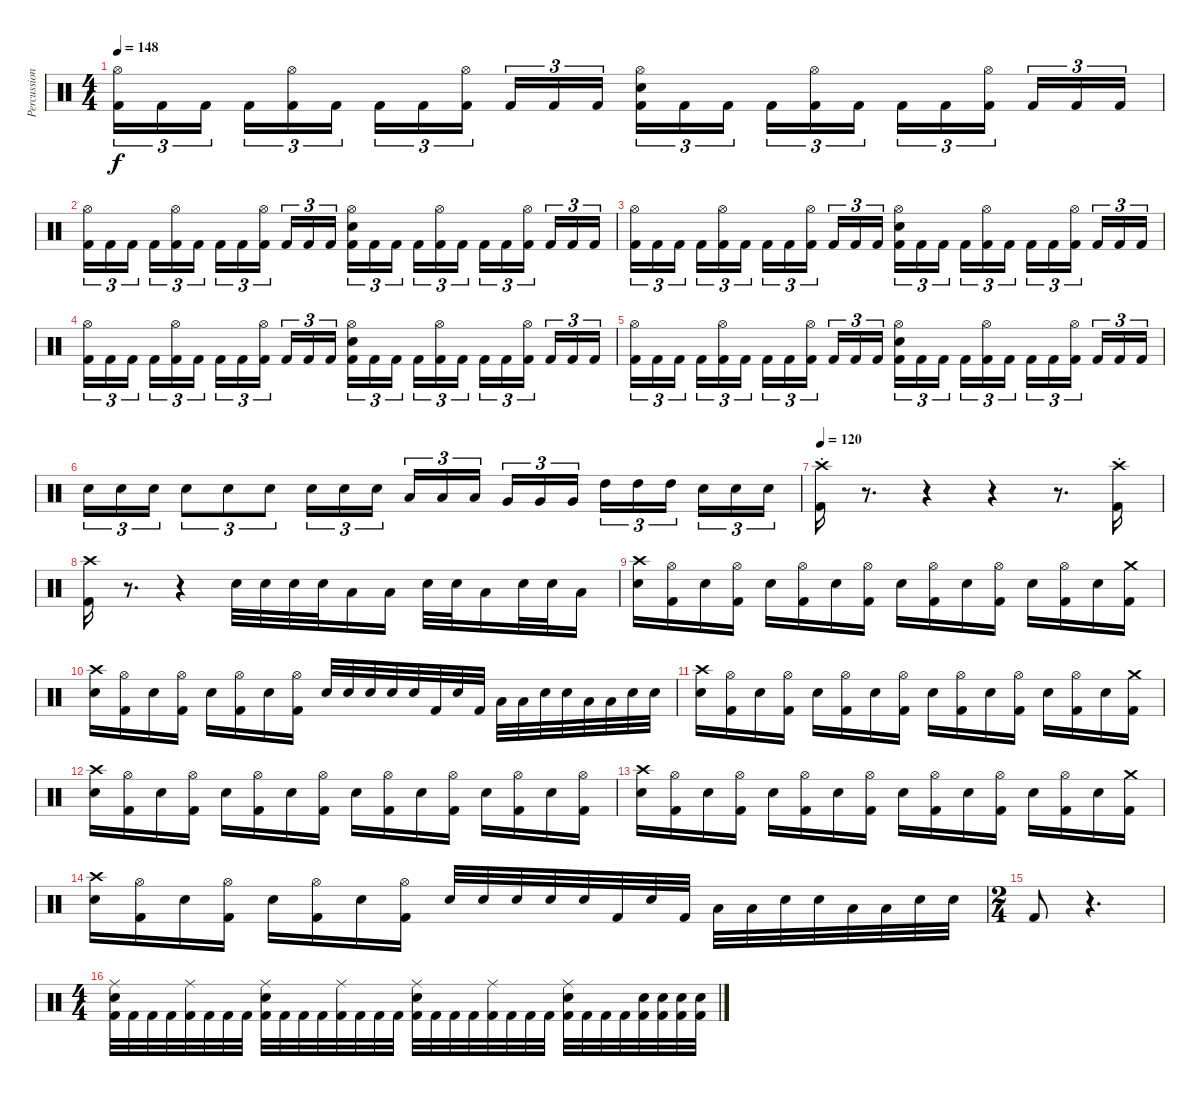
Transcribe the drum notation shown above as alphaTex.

\track ("Percussion" "Percussion") {instrument percussion}
\staff {score}
\articulation defaults
\ts (4 4)
\tempo 148
\clef neutral
\ks c
("Hi-Hat (open)" "Kick (hit) 2").16{tu (3 2) dy f} "Kick (hit) 2".16{tu (3 2)} "Kick (hit) 2".16{tu (3 2)} "Kick (hit) 2".16{tu (3 2)} ("Hi-Hat (open)" "Kick (hit) 2").16{tu (3 2)} "Kick (hit) 2".16{tu (3 2)} "Kick (hit) 2".16{tu (3 2)} "Kick (hit) 2".16{tu (3 2)} ("Hi-Hat (open)" "Kick (hit) 2").16{tu (3 2)} "Kick (hit) 2".16{tu (3 2)} "Kick (hit) 2".16{tu (3 2)} "Kick (hit) 2".16{tu (3 2)} ("Hi-Hat (open)" "Electric Snare (hit)" "Kick (hit) 2").16{tu (3 2)} "Kick (hit) 2".16{tu (3 2)} "Kick (hit) 2".16{tu (3 2)} "Kick (hit) 2".16{tu (3 2)} ("Hi-Hat (open)" "Kick (hit) 2").16{tu (3 2)} "Kick (hit) 2".16{tu (3 2)} "Kick (hit) 2".16{tu (3 2)} "Kick (hit) 2".16{tu (3 2)} ("Hi-Hat (open)" "Kick (hit) 2").16{tu (3 2)} "Kick (hit) 2".16{tu (3 2)} "Kick (hit) 2".16{tu (3 2)} "Kick (hit) 2".16{tu (3 2)} |
("Hi-Hat (open)" "Kick (hit) 2").16{tu (3 2)} "Kick (hit) 2".16{tu (3 2)} "Kick (hit) 2".16{tu (3 2)} "Kick (hit) 2".16{tu (3 2)} ("Hi-Hat (open)" "Kick (hit) 2").16{tu (3 2)} "Kick (hit) 2".16{tu (3 2)} "Kick (hit) 2".16{tu (3 2)} "Kick (hit) 2".16{tu (3 2)} ("Hi-Hat (open)" "Kick (hit) 2").16{tu (3 2)} "Kick (hit) 2".16{tu (3 2)} "Kick (hit) 2".16{tu (3 2)} "Kick (hit) 2".16{tu (3 2)} ("Hi-Hat (open)" "Electric Snare (hit)" "Kick (hit) 2").16{tu (3 2)} "Kick (hit) 2".16{tu (3 2)} "Kick (hit) 2".16{tu (3 2)} "Kick (hit) 2".16{tu (3 2)} ("Hi-Hat (open)" "Kick (hit) 2").16{tu (3 2)} "Kick (hit) 2".16{tu (3 2)} "Kick (hit) 2".16{tu (3 2)} "Kick (hit) 2".16{tu (3 2)} ("Hi-Hat (open)" "Kick (hit) 2").16{tu (3 2)} "Kick (hit) 2".16{tu (3 2)} "Kick (hit) 2".16{tu (3 2)} "Kick (hit) 2".16{tu (3 2)} |
("Hi-Hat (open)" "Kick (hit) 2").16{tu (3 2)} "Kick (hit) 2".16{tu (3 2)} "Kick (hit) 2".16{tu (3 2)} "Kick (hit) 2".16{tu (3 2)} ("Hi-Hat (open)" "Kick (hit) 2").16{tu (3 2)} "Kick (hit) 2".16{tu (3 2)} "Kick (hit) 2".16{tu (3 2)} "Kick (hit) 2".16{tu (3 2)} ("Hi-Hat (open)" "Kick (hit) 2").16{tu (3 2)} "Kick (hit) 2".16{tu (3 2)} "Kick (hit) 2".16{tu (3 2)} "Kick (hit) 2".16{tu (3 2)} ("Hi-Hat (open)" "Electric Snare (hit)" "Kick (hit) 2").16{tu (3 2)} "Kick (hit) 2".16{tu (3 2)} "Kick (hit) 2".16{tu (3 2)} "Kick (hit) 2".16{tu (3 2)} ("Hi-Hat (open)" "Kick (hit) 2").16{tu (3 2)} "Kick (hit) 2".16{tu (3 2)} "Kick (hit) 2".16{tu (3 2)} "Kick (hit) 2".16{tu (3 2)} ("Hi-Hat (open)" "Kick (hit) 2").16{tu (3 2)} "Kick (hit) 2".16{tu (3 2)} "Kick (hit) 2".16{tu (3 2)} "Kick (hit) 2".16{tu (3 2)} |
("Hi-Hat (open)" "Kick (hit) 2").16{tu (3 2)} "Kick (hit) 2".16{tu (3 2)} "Kick (hit) 2".16{tu (3 2)} "Kick (hit) 2".16{tu (3 2)} ("Hi-Hat (open)" "Kick (hit) 2").16{tu (3 2)} "Kick (hit) 2".16{tu (3 2)} "Kick (hit) 2".16{tu (3 2)} "Kick (hit) 2".16{tu (3 2)} ("Hi-Hat (open)" "Kick (hit) 2").16{tu (3 2)} "Kick (hit) 2".16{tu (3 2)} "Kick (hit) 2".16{tu (3 2)} "Kick (hit) 2".16{tu (3 2)} ("Hi-Hat (open)" "Electric Snare (hit)" "Kick (hit) 2").16{tu (3 2)} "Kick (hit) 2".16{tu (3 2)} "Kick (hit) 2".16{tu (3 2)} "Kick (hit) 2".16{tu (3 2)} ("Hi-Hat (open)" "Kick (hit) 2").16{tu (3 2)} "Kick (hit) 2".16{tu (3 2)} "Kick (hit) 2".16{tu (3 2)} "Kick (hit) 2".16{tu (3 2)} ("Hi-Hat (open)" "Kick (hit) 2").16{tu (3 2)} "Kick (hit) 2".16{tu (3 2)} "Kick (hit) 2".16{tu (3 2)} "Kick (hit) 2".16{tu (3 2)} |
("Hi-Hat (open)" "Kick (hit) 2").16{tu (3 2)} "Kick (hit) 2".16{tu (3 2)} "Kick (hit) 2".16{tu (3 2)} "Kick (hit) 2".16{tu (3 2)} ("Hi-Hat (open)" "Kick (hit) 2").16{tu (3 2)} "Kick (hit) 2".16{tu (3 2)} "Kick (hit) 2".16{tu (3 2)} "Kick (hit) 2".16{tu (3 2)} ("Hi-Hat (open)" "Kick (hit) 2").16{tu (3 2)} "Kick (hit) 2".16{tu (3 2)} "Kick (hit) 2".16{tu (3 2)} "Kick (hit) 2".16{tu (3 2)} ("Hi-Hat (open)" "Electric Snare (hit)" "Kick (hit) 2").16{tu (3 2)} "Kick (hit) 2".16{tu (3 2)} "Kick (hit) 2".16{tu (3 2)} "Kick (hit) 2".16{tu (3 2)} ("Hi-Hat (open)" "Kick (hit) 2").16{tu (3 2)} "Kick (hit) 2".16{tu (3 2)} "Kick (hit) 2".16{tu (3 2)} "Kick (hit) 2".16{tu (3 2)} ("Hi-Hat (open)" "Kick (hit) 2").16{tu (3 2)} "Kick (hit) 2".16{tu (3 2)} "Kick (hit) 2".16{tu (3 2)} "Kick (hit) 2".16{tu (3 2)} |
"Electric Snare (hit)".16{tu (3 2)} "Electric Snare (hit)".16{tu (3 2)} "Electric Snare (hit)".16{tu (3 2)} "Electric Snare (hit)".8{tu (3 2)} "Electric Snare (hit)".8{tu (3 2)} "Electric Snare (hit)".8{tu (3 2)} "Electric Snare (hit)".16{tu (3 2)} "Electric Snare (hit)".16{tu (3 2)} "Electric Snare (hit)".16{tu (3 2)} "Low Tom (hit)".16{tu (3 2)} "Low Tom (hit)".16{tu (3 2)} "Low Tom (hit)".16{tu (3 2)} "Very Low Tom (hit)".16{tu (3 2)} "Very Low Tom (hit)".16{tu (3 2)} "Very Low Tom (hit)".16{tu (3 2)} "High Tom (hit)".16{tu (3 2)} "High Tom (hit)".16{tu (3 2)} "High Tom (hit)".16{tu (3 2)} "Electric Snare (hit)".16{tu (3 2)} "Electric Snare (hit)".16{tu (3 2)} "Electric Snare (hit)".16{tu (3 2)} |
\tempo 120
("Crash high (hit)"{st} "Kick (hit) 2").16 r.8{d} r.4 r.4 r.8{d} ("Crash high (hit)"{st} "Kick (hit) 2").16 |
("Crash high (hit)" "Kick (hit) 2").16 r.8{d} r.4 "Electric Snare (hit)".32 "Electric Snare (hit)".32 "Electric Snare (hit)".32 "Electric Snare (hit)".32 "Low Tom (hit)".16 "Low Tom (hit)".16 "Electric Snare (hit)".32 "Electric Snare (hit)".32 "Low Tom (hit)".16 "Electric Snare (hit)".32 "Electric Snare (hit)".32 "Low Tom (hit)".16 |
("Crash high (hit)" "Electric Snare (hit)").16 ("Hi-Hat (open)" "Kick (hit) 2").16 "Electric Snare (hit)".16 ("Hi-Hat (open)" "Kick (hit) 2").16 "Electric Snare (hit)".16 ("Hi-Hat (open)" "Kick (hit) 2").16 "Electric Snare (hit)".16 ("Hi-Hat (open)" "Kick (hit) 2").16 "Electric Snare (hit)".16 ("Hi-Hat (open)" "Kick (hit) 2").16 "Electric Snare (hit)".16 ("Hi-Hat (open)" "Kick (hit) 2").16 "Electric Snare (hit)".16 ("Hi-Hat (open)" "Kick (hit) 2").16 "Electric Snare (hit)".16 ("Crash medium (hit)" "Kick (hit) 2").16 |
("Crash high (hit)" "Electric Snare (hit)").16 ("Hi-Hat (open)" "Kick (hit) 2").16 "Electric Snare (hit)".16 ("Hi-Hat (open)" "Kick (hit) 2").16 "Electric Snare (hit)".16 ("Hi-Hat (open)" "Kick (hit) 2").16 "Electric Snare (hit)".16 ("Hi-Hat (open)" "Kick (hit) 2").16 "Electric Snare (hit)".32 "Electric Snare (hit)".32 "Electric Snare (hit)".32 "Electric Snare (hit)".32 "Electric Snare (hit)".32 "Kick (hit) 2".32 "Electric Snare (hit)".32 "Kick (hit) 2".32 "Low Tom (hit)".32 "Low Tom (hit)".32 "Electric Snare (hit)".32 "Electric Snare (hit)".32 "Low Tom (hit)".32 "Low Tom (hit)".32 "Electric Snare (hit)".32 "Electric Snare (hit)".32 |
("Crash high (hit)" "Electric Snare (hit)").16 ("Hi-Hat (open)" "Kick (hit) 2").16 "Electric Snare (hit)".16 ("Hi-Hat (open)" "Kick (hit) 2").16 "Electric Snare (hit)".16 ("Hi-Hat (open)" "Kick (hit) 2").16 "Electric Snare (hit)".16 ("Hi-Hat (open)" "Kick (hit) 2").16 "Electric Snare (hit)".16 ("Hi-Hat (open)" "Kick (hit) 2").16 "Electric Snare (hit)".16 ("Hi-Hat (open)" "Kick (hit) 2").16 "Electric Snare (hit)".16 ("Hi-Hat (open)" "Kick (hit) 2").16 "Electric Snare (hit)".16 ("Crash medium (hit)" "Kick (hit) 2").16 |
("Crash high (hit)" "Electric Snare (hit)").16 ("Hi-Hat (open)" "Kick (hit) 2").16 "Electric Snare (hit)".16 ("Hi-Hat (open)" "Kick (hit) 2").16 "Electric Snare (hit)".16 ("Hi-Hat (open)" "Kick (hit) 2").16 "Electric Snare (hit)".16 ("Hi-Hat (open)" "Kick (hit) 2").16 "Electric Snare (hit)".16 ("Hi-Hat (open)" "Kick (hit) 2").16 "Electric Snare (hit)".16 ("Hi-Hat (open)" "Kick (hit) 2").16 "Electric Snare (hit)".16 ("Hi-Hat (open)" "Kick (hit) 2").16 "Electric Snare (hit)".16 ("Hi-Hat (open)" "Kick (hit) 2").16 |
("Crash high (hit)" "Electric Snare (hit)").16 ("Hi-Hat (open)" "Kick (hit) 2").16 "Electric Snare (hit)".16 ("Hi-Hat (open)" "Kick (hit) 2").16 "Electric Snare (hit)".16 ("Hi-Hat (open)" "Kick (hit) 2").16 "Electric Snare (hit)".16 ("Hi-Hat (open)" "Kick (hit) 2").16 "Electric Snare (hit)".16 ("Hi-Hat (open)" "Kick (hit) 2").16 "Electric Snare (hit)".16 ("Hi-Hat (open)" "Kick (hit) 2").16 "Electric Snare (hit)".16 ("Hi-Hat (open)" "Kick (hit) 2").16 "Electric Snare (hit)".16 ("Crash medium (hit)" "Kick (hit) 2").16 |
("Crash high (hit)" "Electric Snare (hit)").16 ("Hi-Hat (open)" "Kick (hit) 2").16 "Electric Snare (hit)".16 ("Hi-Hat (open)" "Kick (hit) 2").16 "Electric Snare (hit)".16 ("Hi-Hat (open)" "Kick (hit) 2").16 "Electric Snare (hit)".16 ("Hi-Hat (open)" "Kick (hit) 2").16 "Electric Snare (hit)".32 "Electric Snare (hit)".32 "Electric Snare (hit)".32 "Electric Snare (hit)".32 "Electric Snare (hit)".32 "Kick (hit) 2".32 "Electric Snare (hit)".32 "Kick (hit) 2".32 "Low Tom (hit)".32 "Low Tom (hit)".32 "Electric Snare (hit)".32 "Electric Snare (hit)".32 "Low Tom (hit)".32 "Low Tom (hit)".32 "Electric Snare (hit)".32 "Electric Snare (hit)".32 |
\ts (2 4)
"Kick (hit) 2".8 r.4{d} |
\ts (4 4)
("Ride (middle)" "Electric Snare (hit)" "Kick (hit) 2").32 "Kick (hit) 2".32 "Kick (hit) 2".32 "Kick (hit) 2".32 ("Ride (middle)" "Kick (hit) 2").32 "Kick (hit) 2".32 "Kick (hit) 2".32 "Kick (hit) 2".32 ("Ride (middle)" "Electric Snare (hit)" "Kick (hit) 2").32 "Kick (hit) 2".32 "Kick (hit) 2".32 "Kick (hit) 2".32 ("Ride (middle)" "Kick (hit) 2").32 "Kick (hit) 2".32 "Kick (hit) 2".32 "Kick (hit) 2".32 ("Ride (middle)" "Electric Snare (hit)" "Kick (hit) 2").32 "Kick (hit) 2".32 "Kick (hit) 2".32 "Kick (hit) 2".32 ("Ride (middle)" "Kick (hit) 2").32 "Kick (hit) 2".32 "Kick (hit) 2".32 "Kick (hit) 2".32 ("Ride (middle)" "Electric Snare (hit)" "Kick (hit) 2").32 "Kick (hit) 2".32 "Kick (hit) 2".32 "Kick (hit) 2".32 ("Electric Snare (hit)" "Kick (hit) 2").32 ("Electric Snare (hit)" "Kick (hit) 2").32 ("Electric Snare (hit)" "Kick (hit) 2").32 ("Electric Snare (hit)" "Kick (hit) 2").32
